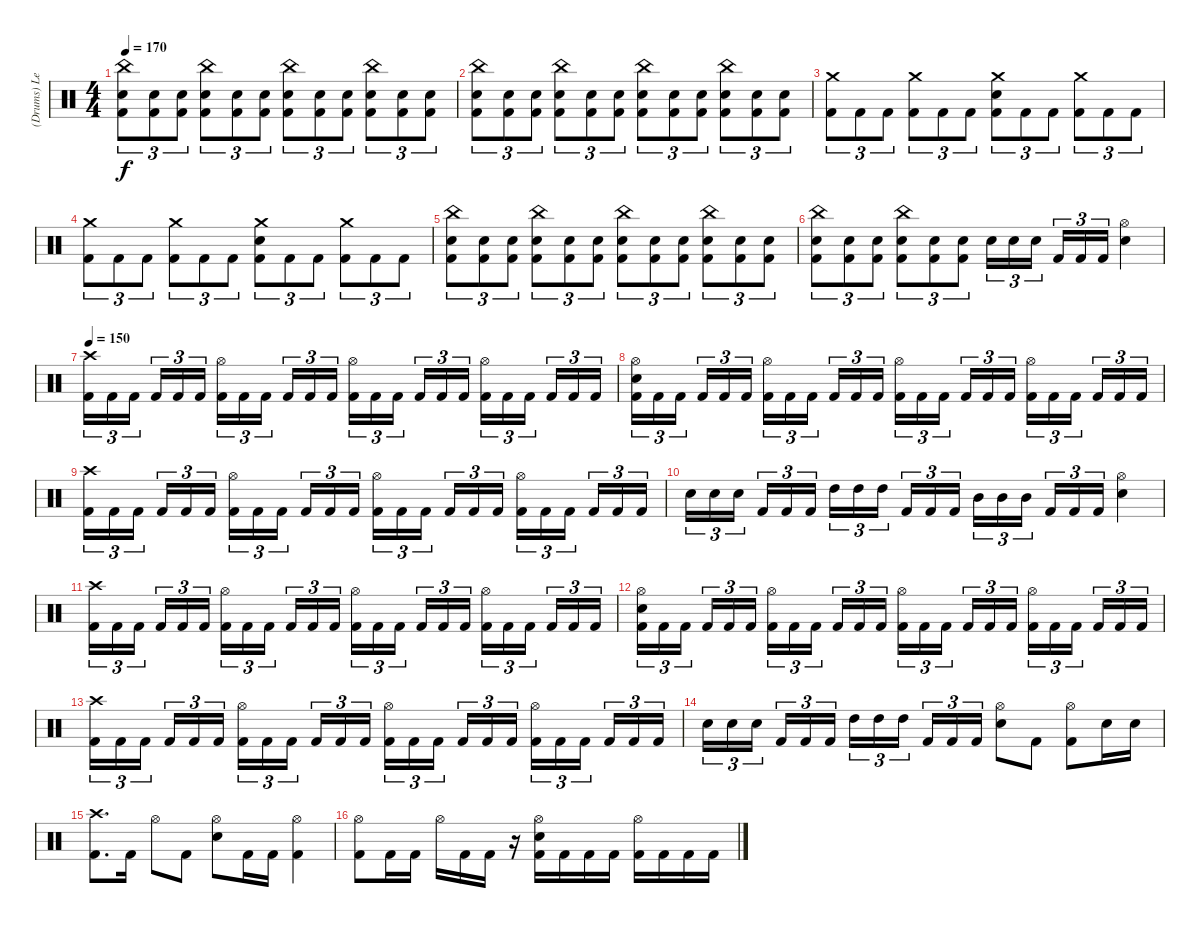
\track ("(Drums) Leche" "(Drums) Le") {instrument percussion}
\staff {score}
\articulation defaults
\ts (4 4)
\tempo 170
\clef neutral
\ks c
("China (hit)" "Electric Snare (hit)" "Kick (hit) 2").8{tu (3 2) dy f} ("Electric Snare (hit)" "Kick (hit) 2").8{tu (3 2)} ("Electric Snare (hit)" "Kick (hit) 2").8{tu (3 2)} ("China (hit)" "Electric Snare (hit)" "Kick (hit) 2").8{tu (3 2)} ("Electric Snare (hit)" "Kick (hit) 2").8{tu (3 2)} ("Electric Snare (hit)" "Kick (hit) 2").8{tu (3 2)} ("China (hit)" "Electric Snare (hit)" "Kick (hit) 2").8{tu (3 2)} ("Electric Snare (hit)" "Kick (hit) 2").8{tu (3 2)} ("Electric Snare (hit)" "Kick (hit) 2").8{tu (3 2)} ("China (hit)" "Electric Snare (hit)" "Kick (hit) 2").8{tu (3 2)} ("Electric Snare (hit)" "Kick (hit) 2").8{tu (3 2)} ("Electric Snare (hit)" "Kick (hit) 2").8{tu (3 2)} |
("China (hit)" "Electric Snare (hit)" "Kick (hit) 2").8{tu (3 2)} ("Electric Snare (hit)" "Kick (hit) 2").8{tu (3 2)} ("Electric Snare (hit)" "Kick (hit) 2").8{tu (3 2)} ("China (hit)" "Electric Snare (hit)" "Kick (hit) 2").8{tu (3 2)} ("Electric Snare (hit)" "Kick (hit) 2").8{tu (3 2)} ("Electric Snare (hit)" "Kick (hit) 2").8{tu (3 2)} ("China (hit)" "Electric Snare (hit)" "Kick (hit) 2").8{tu (3 2)} ("Electric Snare (hit)" "Kick (hit) 2").8{tu (3 2)} ("Electric Snare (hit)" "Kick (hit) 2").8{tu (3 2)} ("China (hit)" "Electric Snare (hit)" "Kick (hit) 2").8{tu (3 2)} ("Electric Snare (hit)" "Kick (hit) 2").8{tu (3 2)} ("Electric Snare (hit)" "Kick (hit) 2").8{tu (3 2)} |
("Crash medium (hit)" "Kick (hit) 2").8{tu (3 2)} "Kick (hit) 2".8{tu (3 2)} "Kick (hit) 2".8{tu (3 2)} ("Crash medium (hit)" "Kick (hit) 2").8{tu (3 2)} "Kick (hit) 2".8{tu (3 2)} "Kick (hit) 2".8{tu (3 2)} ("Crash medium (hit)" "Electric Snare (hit)" "Kick (hit) 2").8{tu (3 2)} "Kick (hit) 2".8{tu (3 2)} "Kick (hit) 2".8{tu (3 2)} ("Crash medium (hit)" "Kick (hit) 2").8{tu (3 2)} "Kick (hit) 2".8{tu (3 2)} "Kick (hit) 2".8{tu (3 2)} |
("Crash medium (hit)" "Kick (hit) 2").8{tu (3 2)} "Kick (hit) 2".8{tu (3 2)} "Kick (hit) 2".8{tu (3 2)} ("Crash medium (hit)" "Kick (hit) 2").8{tu (3 2)} "Kick (hit) 2".8{tu (3 2)} "Kick (hit) 2".8{tu (3 2)} ("Crash medium (hit)" "Electric Snare (hit)" "Kick (hit) 2").8{tu (3 2)} "Kick (hit) 2".8{tu (3 2)} "Kick (hit) 2".8{tu (3 2)} ("Crash medium (hit)" "Kick (hit) 2").8{tu (3 2)} "Kick (hit) 2".8{tu (3 2)} "Kick (hit) 2".8{tu (3 2)} |
("China (hit)" "Electric Snare (hit)" "Kick (hit) 2").8{tu (3 2)} ("Electric Snare (hit)" "Kick (hit) 2").8{tu (3 2)} ("Electric Snare (hit)" "Kick (hit) 2").8{tu (3 2)} ("China (hit)" "Electric Snare (hit)" "Kick (hit) 2").8{tu (3 2)} ("Electric Snare (hit)" "Kick (hit) 2").8{tu (3 2)} ("Electric Snare (hit)" "Kick (hit) 2").8{tu (3 2)} ("China (hit)" "Electric Snare (hit)" "Kick (hit) 2").8{tu (3 2)} ("Electric Snare (hit)" "Kick (hit) 2").8{tu (3 2)} ("Electric Snare (hit)" "Kick (hit) 2").8{tu (3 2)} ("China (hit)" "Electric Snare (hit)" "Kick (hit) 2").8{tu (3 2)} ("Electric Snare (hit)" "Kick (hit) 2").8{tu (3 2)} ("Electric Snare (hit)" "Kick (hit) 2").8{tu (3 2)} |
("China (hit)" "Electric Snare (hit)" "Kick (hit) 2").8{tu (3 2)} ("Electric Snare (hit)" "Kick (hit) 2").8{tu (3 2)} ("Electric Snare (hit)" "Kick (hit) 2").8{tu (3 2)} ("China (hit)" "Electric Snare (hit)" "Kick (hit) 2").8{tu (3 2)} ("Electric Snare (hit)" "Kick (hit) 2").8{tu (3 2)} ("Electric Snare (hit)" "Kick (hit) 2").8{tu (3 2)} "Electric Snare (hit)".16{tu (3 2)} "Electric Snare (hit)".16{tu (3 2)} "Electric Snare (hit)".16{tu (3 2) beam splitsecondary} "Kick (hit) 2".16{tu (3 2)} "Kick (hit) 2".16{tu (3 2)} "Kick (hit) 2".16{tu (3 2)} ("Hi-Hat (open)" "Electric Snare (hit)").4 |
\tempo 150
("Crash high (hit)" "Kick (hit) 2").16{tu (3 2)} "Kick (hit) 2".16{tu (3 2)} "Kick (hit) 2".16{tu (3 2) beam splitsecondary} "Kick (hit) 2".16{tu (3 2)} "Kick (hit) 2".16{tu (3 2)} "Kick (hit) 2".16{tu (3 2)} ("Hi-Hat (open)" "Kick (hit) 2").16{tu (3 2)} "Kick (hit) 2".16{tu (3 2)} "Kick (hit) 2".16{tu (3 2) beam splitsecondary} "Kick (hit) 2".16{tu (3 2)} "Kick (hit) 2".16{tu (3 2)} "Kick (hit) 2".16{tu (3 2)} ("Hi-Hat (open)" "Kick (hit) 2").16{tu (3 2)} "Kick (hit) 2".16{tu (3 2)} "Kick (hit) 2".16{tu (3 2) beam splitsecondary} "Kick (hit) 2".16{tu (3 2)} "Kick (hit) 2".16{tu (3 2)} "Kick (hit) 2".16{tu (3 2)} ("Hi-Hat (open)" "Kick (hit) 2").16{tu (3 2)} "Kick (hit) 2".16{tu (3 2)} "Kick (hit) 2".16{tu (3 2) beam splitsecondary} "Kick (hit) 2".16{tu (3 2)} "Kick (hit) 2".16{tu (3 2)} "Kick (hit) 2".16{tu (3 2)} |
("Hi-Hat (open)" "Electric Snare (hit)" "Kick (hit) 2").16{tu (3 2)} "Kick (hit) 2".16{tu (3 2)} "Kick (hit) 2".16{tu (3 2) beam splitsecondary} "Kick (hit) 2".16{tu (3 2)} "Kick (hit) 2".16{tu (3 2)} "Kick (hit) 2".16{tu (3 2)} ("Hi-Hat (open)" "Kick (hit) 2").16{tu (3 2)} "Kick (hit) 2".16{tu (3 2)} "Kick (hit) 2".16{tu (3 2) beam splitsecondary} "Kick (hit) 2".16{tu (3 2)} "Kick (hit) 2".16{tu (3 2)} "Kick (hit) 2".16{tu (3 2)} ("Hi-Hat (open)" "Kick (hit) 2").16{tu (3 2)} "Kick (hit) 2".16{tu (3 2)} "Kick (hit) 2".16{tu (3 2) beam splitsecondary} "Kick (hit) 2".16{tu (3 2)} "Kick (hit) 2".16{tu (3 2)} "Kick (hit) 2".16{tu (3 2)} ("Hi-Hat (open)" "Kick (hit) 2").16{tu (3 2)} "Kick (hit) 2".16{tu (3 2)} "Kick (hit) 2".16{tu (3 2) beam splitsecondary} "Kick (hit) 2".16{tu (3 2)} "Kick (hit) 2".16{tu (3 2)} "Kick (hit) 2".16{tu (3 2)} |
("Crash high (hit)" "Kick (hit) 2").16{tu (3 2)} "Kick (hit) 2".16{tu (3 2)} "Kick (hit) 2".16{tu (3 2) beam splitsecondary} "Kick (hit) 2".16{tu (3 2)} "Kick (hit) 2".16{tu (3 2)} "Kick (hit) 2".16{tu (3 2)} ("Hi-Hat (open)" "Kick (hit) 2").16{tu (3 2)} "Kick (hit) 2".16{tu (3 2)} "Kick (hit) 2".16{tu (3 2) beam splitsecondary} "Kick (hit) 2".16{tu (3 2)} "Kick (hit) 2".16{tu (3 2)} "Kick (hit) 2".16{tu (3 2)} ("Hi-Hat (open)" "Kick (hit) 2").16{tu (3 2)} "Kick (hit) 2".16{tu (3 2)} "Kick (hit) 2".16{tu (3 2) beam splitsecondary} "Kick (hit) 2".16{tu (3 2)} "Kick (hit) 2".16{tu (3 2)} "Kick (hit) 2".16{tu (3 2)} ("Hi-Hat (open)" "Kick (hit) 2").16{tu (3 2)} "Kick (hit) 2".16{tu (3 2)} "Kick (hit) 2".16{tu (3 2) beam splitsecondary} "Kick (hit) 2".16{tu (3 2)} "Kick (hit) 2".16{tu (3 2)} "Kick (hit) 2".16{tu (3 2)} |
"Electric Snare (hit)".16{tu (3 2)} "Electric Snare (hit)".16{tu (3 2)} "Electric Snare (hit)".16{tu (3 2) beam splitsecondary} "Kick (hit) 2".16{tu (3 2)} "Kick (hit) 2".16{tu (3 2)} "Kick (hit) 2".16{tu (3 2)} "High Tom (hit)".16{tu (3 2)} "High Tom (hit)".16{tu (3 2)} "High Tom (hit)".16{tu (3 2) beam splitsecondary} "Kick (hit) 2".16{tu (3 2)} "Kick (hit) 2".16{tu (3 2)} "Kick (hit) 2".16{tu (3 2)} "Mid Tom (hit)".16{tu (3 2)} "Mid Tom (hit)".16{tu (3 2)} "Mid Tom (hit)".16{tu (3 2) beam splitsecondary} "Kick (hit) 2".16{tu (3 2)} "Kick (hit) 2".16{tu (3 2)} "Kick (hit) 2".16{tu (3 2)} ("Hi-Hat (open)" "Electric Snare (hit)").4 |
("Crash high (hit)" "Kick (hit) 2").16{tu (3 2)} "Kick (hit) 2".16{tu (3 2)} "Kick (hit) 2".16{tu (3 2) beam splitsecondary} "Kick (hit) 2".16{tu (3 2)} "Kick (hit) 2".16{tu (3 2)} "Kick (hit) 2".16{tu (3 2)} ("Hi-Hat (open)" "Kick (hit) 2").16{tu (3 2)} "Kick (hit) 2".16{tu (3 2)} "Kick (hit) 2".16{tu (3 2) beam splitsecondary} "Kick (hit) 2".16{tu (3 2)} "Kick (hit) 2".16{tu (3 2)} "Kick (hit) 2".16{tu (3 2)} ("Hi-Hat (open)" "Kick (hit) 2").16{tu (3 2)} "Kick (hit) 2".16{tu (3 2)} "Kick (hit) 2".16{tu (3 2) beam splitsecondary} "Kick (hit) 2".16{tu (3 2)} "Kick (hit) 2".16{tu (3 2)} "Kick (hit) 2".16{tu (3 2)} ("Hi-Hat (open)" "Kick (hit) 2").16{tu (3 2)} "Kick (hit) 2".16{tu (3 2)} "Kick (hit) 2".16{tu (3 2) beam splitsecondary} "Kick (hit) 2".16{tu (3 2)} "Kick (hit) 2".16{tu (3 2)} "Kick (hit) 2".16{tu (3 2)} |
("Hi-Hat (open)" "Electric Snare (hit)" "Kick (hit) 2").16{tu (3 2)} "Kick (hit) 2".16{tu (3 2)} "Kick (hit) 2".16{tu (3 2) beam splitsecondary} "Kick (hit) 2".16{tu (3 2)} "Kick (hit) 2".16{tu (3 2)} "Kick (hit) 2".16{tu (3 2)} ("Hi-Hat (open)" "Kick (hit) 2").16{tu (3 2)} "Kick (hit) 2".16{tu (3 2)} "Kick (hit) 2".16{tu (3 2) beam splitsecondary} "Kick (hit) 2".16{tu (3 2)} "Kick (hit) 2".16{tu (3 2)} "Kick (hit) 2".16{tu (3 2)} ("Hi-Hat (open)" "Kick (hit) 2").16{tu (3 2)} "Kick (hit) 2".16{tu (3 2)} "Kick (hit) 2".16{tu (3 2) beam splitsecondary} "Kick (hit) 2".16{tu (3 2)} "Kick (hit) 2".16{tu (3 2)} "Kick (hit) 2".16{tu (3 2)} ("Hi-Hat (open)" "Kick (hit) 2").16{tu (3 2)} "Kick (hit) 2".16{tu (3 2)} "Kick (hit) 2".16{tu (3 2) beam splitsecondary} "Kick (hit) 2".16{tu (3 2)} "Kick (hit) 2".16{tu (3 2)} "Kick (hit) 2".16{tu (3 2)} |
("Crash high (hit)" "Kick (hit) 2").16{tu (3 2)} "Kick (hit) 2".16{tu (3 2)} "Kick (hit) 2".16{tu (3 2) beam splitsecondary} "Kick (hit) 2".16{tu (3 2)} "Kick (hit) 2".16{tu (3 2)} "Kick (hit) 2".16{tu (3 2)} ("Hi-Hat (open)" "Kick (hit) 2").16{tu (3 2)} "Kick (hit) 2".16{tu (3 2)} "Kick (hit) 2".16{tu (3 2) beam splitsecondary} "Kick (hit) 2".16{tu (3 2)} "Kick (hit) 2".16{tu (3 2)} "Kick (hit) 2".16{tu (3 2)} ("Hi-Hat (open)" "Kick (hit) 2").16{tu (3 2)} "Kick (hit) 2".16{tu (3 2)} "Kick (hit) 2".16{tu (3 2) beam splitsecondary} "Kick (hit) 2".16{tu (3 2)} "Kick (hit) 2".16{tu (3 2)} "Kick (hit) 2".16{tu (3 2)} ("Hi-Hat (open)" "Kick (hit) 2").16{tu (3 2)} "Kick (hit) 2".16{tu (3 2)} "Kick (hit) 2".16{tu (3 2) beam splitsecondary} "Kick (hit) 2".16{tu (3 2)} "Kick (hit) 2".16{tu (3 2)} "Kick (hit) 2".16{tu (3 2)} |
"Electric Snare (hit)".16{tu (3 2)} "Electric Snare (hit)".16{tu (3 2)} "Electric Snare (hit)".16{tu (3 2) beam splitsecondary} "Kick (hit) 2".16{tu (3 2)} "Kick (hit) 2".16{tu (3 2)} "Kick (hit) 2".16{tu (3 2)} "High Tom (hit)".16{tu (3 2)} "High Tom (hit)".16{tu (3 2)} "High Tom (hit)".16{tu (3 2) beam splitsecondary} "Kick (hit) 2".16{tu (3 2)} "Kick (hit) 2".16{tu (3 2)} "Kick (hit) 2".16{tu (3 2)} ("Hi-Hat (open)" "Electric Snare (hit)").8 "Kick (hit) 2".8 ("Hi-Hat (open)" "Kick (hit) 2").8 "Electric Snare (hit)".16 "Electric Snare (hit)".16 |
("Crash high (hit)" "Kick (hit) 2").8{d} "Kick (hit) 2".16 "Hi-Hat (open)".8 "Kick (hit) 2".8 ("Hi-Hat (open)" "Electric Snare (hit)").8 "Kick (hit) 2".16 "Kick (hit) 2".16 ("Hi-Hat (open)" "Kick (hit) 2").4 |
("Hi-Hat (open)" "Kick (hit) 2").8 "Kick (hit) 2".16 "Kick (hit) 2".16 "Hi-Hat (open)".16 "Kick (hit) 2".16 "Kick (hit) 2".16 r.16 ("Hi-Hat (open)" "Electric Snare (hit)" "Kick (hit) 2").16 "Kick (hit) 2".16 "Kick (hit) 2".16 "Kick (hit) 2".16 ("Hi-Hat (open)" "Kick (hit) 2").16 "Kick (hit) 2".16 "Kick (hit) 2".16 "Kick (hit) 2".16
